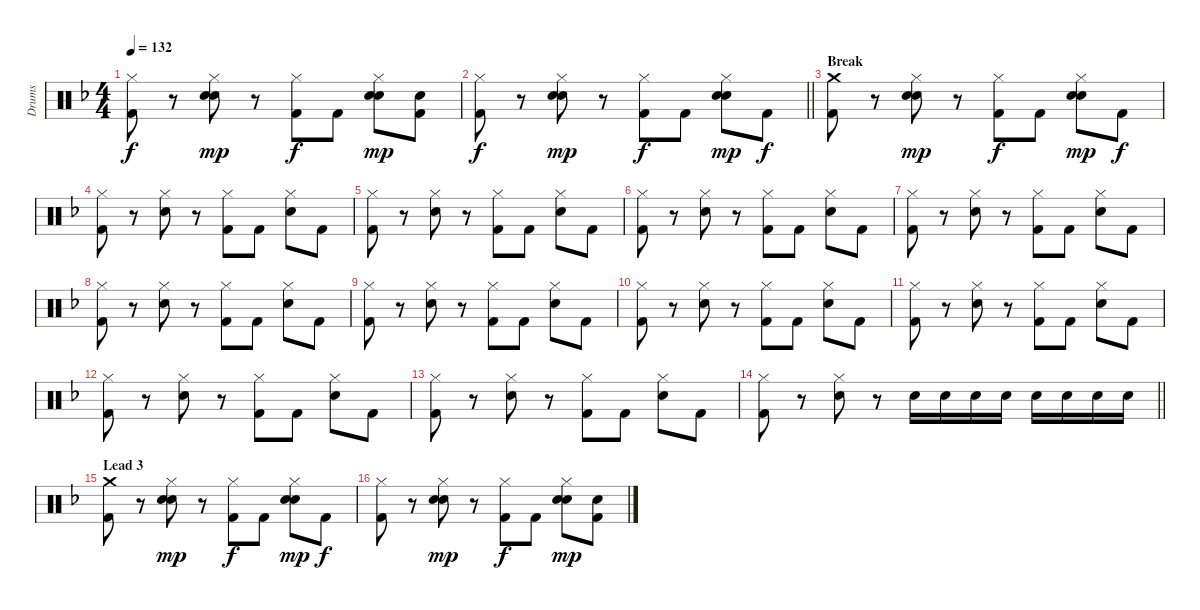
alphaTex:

\track ("Drums" "Drums") {instrument percussion}
\staff {score}
\articulation defaults
\ts (4 4)
\tempo 132
\clef neutral
\ks f
("Hi-Hat (closed)" "Kick (hit) 2").8{dy f} r.8 ("Hi-Hat (closed)" "Hand Clap (hit)" "Snare (hit) 2").8{dy mp} r.8 ("Hi-Hat (closed)" "Kick (hit) 2").8{dy f} "Kick (hit) 2".8 ("Hi-Hat (closed)" "Hand Clap (hit)" "Snare (hit) 2").8{dy mp} ("Hand Clap (hit)" "Kick (hit) 2").8 |
\barLineRight lightlight
("Hi-Hat (closed)" "Kick (hit) 2").8{dy f} r.8 ("Hi-Hat (closed)" "Hand Clap (hit)" "Snare (hit) 2").8{dy mp} r.8 ("Hi-Hat (closed)" "Kick (hit) 2").8{dy f} "Kick (hit) 2".8 ("Hi-Hat (closed)" "Hand Clap (hit)" "Snare (hit) 2").8{dy mp} "Kick (hit) 2".8{dy f} |
\section ("" "Break")
("Crash medium (hit)" "Kick (hit) 2").8 r.8 ("Hi-Hat (closed)" "Hand Clap (hit)" "Snare (hit) 2").8{dy mp} r.8 ("Hi-Hat (closed)" "Kick (hit) 2").8{dy f} "Kick (hit) 2".8 ("Hi-Hat (closed)" "Hand Clap (hit)" "Snare (hit) 2").8{dy mp} "Kick (hit) 2".8{dy f} |
("Hi-Hat (closed)" "Kick (hit) 2").8 r.8 ("Hi-Hat (closed)" "Snare (hit) 2").8 r.8 ("Hi-Hat (closed)" "Kick (hit) 2").8 "Kick (hit) 2".8 ("Hi-Hat (closed)" "Snare (hit) 2").8 "Kick (hit) 2".8 |
("Hi-Hat (closed)" "Kick (hit) 2").8 r.8 ("Hi-Hat (closed)" "Snare (hit) 2").8 r.8 ("Hi-Hat (closed)" "Kick (hit) 2").8 "Kick (hit) 2".8 ("Hi-Hat (closed)" "Snare (hit) 2").8 "Kick (hit) 2".8 |
("Hi-Hat (closed)" "Kick (hit) 2").8 r.8 ("Hi-Hat (closed)" "Snare (hit) 2").8 r.8 ("Hi-Hat (closed)" "Kick (hit) 2").8 "Kick (hit) 2".8 ("Hi-Hat (closed)" "Snare (hit) 2").8 "Kick (hit) 2".8 |
("Hi-Hat (closed)" "Kick (hit) 2").8 r.8 ("Hi-Hat (closed)" "Snare (hit) 2").8 r.8 ("Hi-Hat (closed)" "Kick (hit) 2").8 "Kick (hit) 2".8 ("Hi-Hat (closed)" "Snare (hit) 2").8 "Kick (hit) 2".8 |
("Hi-Hat (closed)" "Kick (hit) 2").8 r.8 ("Hi-Hat (closed)" "Snare (hit) 2").8 r.8 ("Hi-Hat (closed)" "Kick (hit) 2").8 "Kick (hit) 2".8 ("Hi-Hat (closed)" "Snare (hit) 2").8 "Kick (hit) 2".8 |
("Hi-Hat (closed)" "Kick (hit) 2").8 r.8 ("Hi-Hat (closed)" "Snare (hit) 2").8 r.8 ("Hi-Hat (closed)" "Kick (hit) 2").8 "Kick (hit) 2".8 ("Hi-Hat (closed)" "Snare (hit) 2").8 "Kick (hit) 2".8 |
("Hi-Hat (closed)" "Kick (hit) 2").8 r.8 ("Hi-Hat (closed)" "Snare (hit) 2").8 r.8 ("Hi-Hat (closed)" "Kick (hit) 2").8 "Kick (hit) 2".8 ("Hi-Hat (closed)" "Snare (hit) 2").8 "Kick (hit) 2".8 |
("Hi-Hat (closed)" "Kick (hit) 2").8 r.8 ("Hi-Hat (closed)" "Snare (hit) 2").8 r.8 ("Hi-Hat (closed)" "Kick (hit) 2").8 "Kick (hit) 2".8 ("Hi-Hat (closed)" "Snare (hit) 2").8 "Kick (hit) 2".8 |
("Hi-Hat (closed)" "Kick (hit) 2").8 r.8 ("Hi-Hat (closed)" "Snare (hit) 2").8 r.8 ("Hi-Hat (closed)" "Kick (hit) 2").8 "Kick (hit) 2".8 ("Hi-Hat (closed)" "Snare (hit) 2").8 "Kick (hit) 2".8 |
("Hi-Hat (closed)" "Kick (hit) 2").8 r.8 ("Hi-Hat (closed)" "Snare (hit) 2").8 r.8 ("Hi-Hat (closed)" "Kick (hit) 2").8 "Kick (hit) 2".8 ("Hi-Hat (closed)" "Snare (hit) 2").8 "Kick (hit) 2".8 |
\barLineRight lightlight
("Hi-Hat (closed)" "Kick (hit) 2").8 r.8 ("Hi-Hat (closed)" "Snare (hit) 2").8 r.8 "Snare (hit) 2".16 "Snare (hit) 2".16 "Snare (hit) 2".16 "Snare (hit) 2".16 "Snare (hit) 2".16 "Snare (hit) 2".16 "Snare (hit) 2".16 "Snare (hit) 2".16 |
\section ("" "Lead 3")
("Crash medium (hit)" "Kick (hit) 2").8 r.8 ("Hi-Hat (closed)" "Hand Clap (hit)" "Snare (hit) 2").8{dy mp} r.8 ("Hi-Hat (closed)" "Kick (hit) 2").8{dy f} "Kick (hit) 2".8 ("Hi-Hat (closed)" "Hand Clap (hit)" "Snare (hit) 2").8{dy mp} "Kick (hit) 2".8{dy f} |
("Hi-Hat (closed)" "Kick (hit) 2").8 r.8 ("Hi-Hat (closed)" "Hand Clap (hit)" "Snare (hit) 2").8{dy mp} r.8 ("Hi-Hat (closed)" "Kick (hit) 2").8{dy f} "Kick (hit) 2".8 ("Hi-Hat (closed)" "Hand Clap (hit)" "Snare (hit) 2").8{dy mp} ("Hand Clap (hit)" "Kick (hit) 2").8
